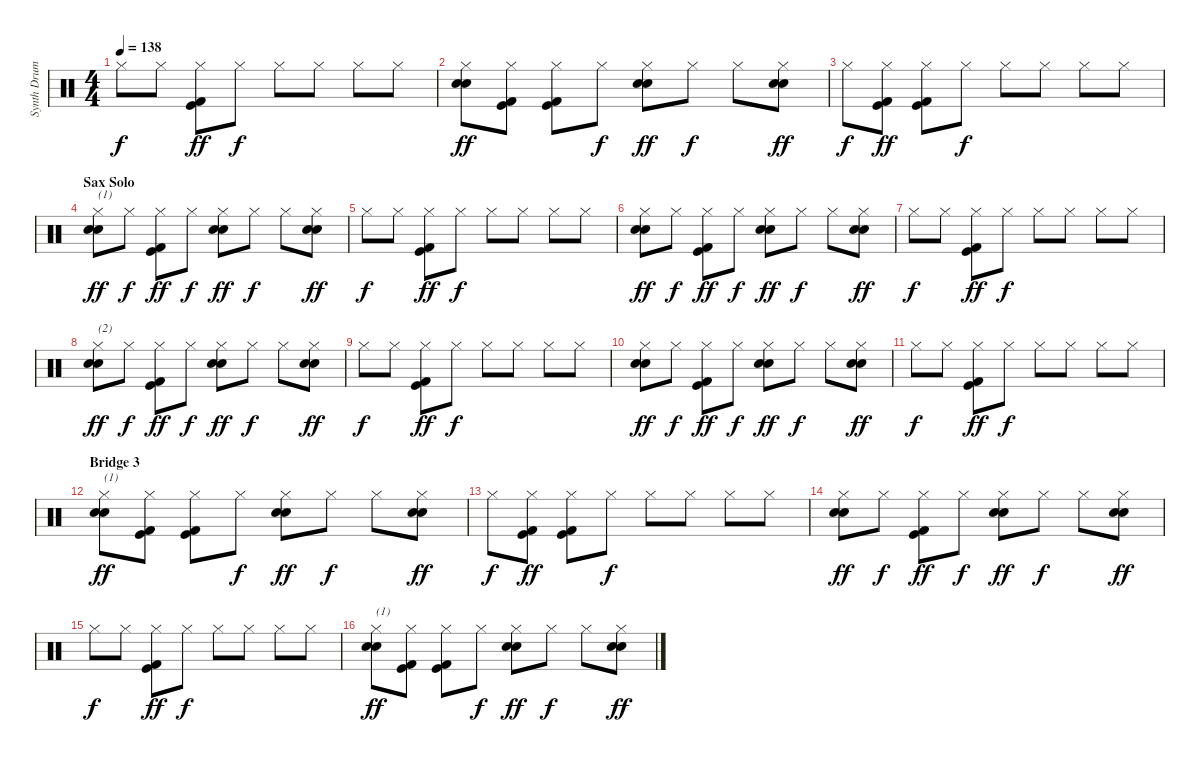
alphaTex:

\track ("Synth Drums" "Synth Drum") {instrument percussion}
\staff {score}
\articulation defaults
\ts (4 4)
\tempo 138
\clef neutral
\ks c "Hi-Hat (closed)".8{dy f} "Hi-Hat (closed)".8
("Hi-Hat (closed)" "Kick (hit)" "Kick (hit) 2").8{dy ff} "Hi-Hat (closed)".8{dy f} "Hi-Hat (closed)".8 "Hi-Hat (closed)".8 "Hi-Hat (closed)".8 "Hi-Hat (closed)".8 |
("Hi-Hat (closed)" "Electric Snare (hit)" "Snare (hit) 2").8{dy ff} ("Hi-Hat (closed)" "Kick (hit)" "Kick (hit) 2").8 ("Hi-Hat (closed)" "Kick (hit)" "Kick (hit) 2").8 "Hi-Hat (closed)".8{dy f} ("Hi-Hat (closed)" "Electric Snare (hit)" "Snare (hit) 2").8{dy ff} "Hi-Hat (closed)".8{dy f} "Hi-Hat (closed)".8 ("Hi-Hat (closed)" "Electric Snare (hit)" "Snare (hit) 2").8{dy ff} |
"Hi-Hat (closed)".8{dy f} ("Hi-Hat (closed)" "Kick (hit)" "Kick (hit) 2").8{dy ff} ("Hi-Hat (closed)" "Kick (hit)" "Kick (hit) 2").8 "Hi-Hat (closed)".8{dy f} "Hi-Hat (closed)".8 "Hi-Hat (closed)".8 "Hi-Hat (closed)".8 "Hi-Hat (closed)".8 |
\section ("" "Sax Solo")
("Hi-Hat (closed)" "Electric Snare (hit)" "Snare (hit) 2").8{txt "(1)" dy ff} "Hi-Hat (closed)".8{dy f} ("Hi-Hat (closed)" "Kick (hit)" "Kick (hit) 2").8{dy ff} "Hi-Hat (closed)".8{dy f} ("Hi-Hat (closed)" "Electric Snare (hit)" "Snare (hit) 2").8{dy ff} "Hi-Hat (closed)".8{dy f} "Hi-Hat (closed)".8 ("Hi-Hat (closed)" "Electric Snare (hit)" "Snare (hit) 2").8{dy ff} |
"Hi-Hat (closed)".8{dy f} "Hi-Hat (closed)".8 ("Hi-Hat (closed)" "Kick (hit)" "Kick (hit) 2").8{dy ff} "Hi-Hat (closed)".8{dy f} "Hi-Hat (closed)".8 "Hi-Hat (closed)".8 "Hi-Hat (closed)".8 "Hi-Hat (closed)".8 |
("Hi-Hat (closed)" "Electric Snare (hit)" "Snare (hit) 2").8{dy ff} "Hi-Hat (closed)".8{dy f} ("Hi-Hat (closed)" "Kick (hit)" "Kick (hit) 2").8{dy ff} "Hi-Hat (closed)".8{dy f} ("Hi-Hat (closed)" "Electric Snare (hit)" "Snare (hit) 2").8{dy ff} "Hi-Hat (closed)".8{dy f} "Hi-Hat (closed)".8 ("Hi-Hat (closed)" "Electric Snare (hit)" "Snare (hit) 2").8{dy ff} |
"Hi-Hat (closed)".8{dy f} "Hi-Hat (closed)".8 ("Hi-Hat (closed)" "Kick (hit)" "Kick (hit) 2").8{dy ff} "Hi-Hat (closed)".8{dy f} "Hi-Hat (closed)".8 "Hi-Hat (closed)".8 "Hi-Hat (closed)".8 "Hi-Hat (closed)".8 |
("Hi-Hat (closed)" "Electric Snare (hit)" "Snare (hit) 2").8{txt "(2)" dy ff} "Hi-Hat (closed)".8{dy f} ("Hi-Hat (closed)" "Kick (hit)" "Kick (hit) 2").8{dy ff} "Hi-Hat (closed)".8{dy f} ("Hi-Hat (closed)" "Electric Snare (hit)" "Snare (hit) 2").8{dy ff} "Hi-Hat (closed)".8{dy f} "Hi-Hat (closed)".8 ("Hi-Hat (closed)" "Electric Snare (hit)" "Snare (hit) 2").8{dy ff} |
"Hi-Hat (closed)".8{dy f} "Hi-Hat (closed)".8 ("Hi-Hat (closed)" "Kick (hit)" "Kick (hit) 2").8{dy ff} "Hi-Hat (closed)".8{dy f} "Hi-Hat (closed)".8 "Hi-Hat (closed)".8 "Hi-Hat (closed)".8 "Hi-Hat (closed)".8 |
("Hi-Hat (closed)" "Electric Snare (hit)" "Snare (hit) 2").8{dy ff} "Hi-Hat (closed)".8{dy f} ("Hi-Hat (closed)" "Kick (hit)" "Kick (hit) 2").8{dy ff} "Hi-Hat (closed)".8{dy f} ("Hi-Hat (closed)" "Electric Snare (hit)" "Snare (hit) 2").8{dy ff} "Hi-Hat (closed)".8{dy f} "Hi-Hat (closed)".8 ("Hi-Hat (closed)" "Electric Snare (hit)" "Snare (hit) 2").8{dy ff} |
"Hi-Hat (closed)".8{dy f} "Hi-Hat (closed)".8 ("Hi-Hat (closed)" "Kick (hit)" "Kick (hit) 2").8{dy ff} "Hi-Hat (closed)".8{dy f} "Hi-Hat (closed)".8 "Hi-Hat (closed)".8 "Hi-Hat (closed)".8 "Hi-Hat (closed)".8 |
\section ("" "Bridge 3")
("Hi-Hat (closed)" "Electric Snare (hit)" "Snare (hit) 2").8{txt "(1)" dy ff} ("Hi-Hat (closed)" "Kick (hit)" "Kick (hit) 2").8 ("Hi-Hat (closed)" "Kick (hit)" "Kick (hit) 2").8 "Hi-Hat (closed)".8{dy f} ("Hi-Hat (closed)" "Electric Snare (hit)" "Snare (hit) 2").8{dy ff} "Hi-Hat (closed)".8{dy f} "Hi-Hat (closed)".8 ("Hi-Hat (closed)" "Electric Snare (hit)" "Snare (hit) 2").8{dy ff} |
"Hi-Hat (closed)".8{dy f} ("Hi-Hat (closed)" "Kick (hit)" "Kick (hit) 2").8{dy ff} ("Hi-Hat (closed)" "Kick (hit)" "Kick (hit) 2").8 "Hi-Hat (closed)".8{dy f} "Hi-Hat (closed)".8 "Hi-Hat (closed)".8 "Hi-Hat (closed)".8 "Hi-Hat (closed)".8 |
("Hi-Hat (closed)" "Electric Snare (hit)" "Snare (hit) 2").8{dy ff} "Hi-Hat (closed)".8{dy f} ("Hi-Hat (closed)" "Kick (hit)" "Kick (hit) 2").8{dy ff} "Hi-Hat (closed)".8{dy f} ("Hi-Hat (closed)" "Electric Snare (hit)" "Snare (hit) 2").8{dy ff} "Hi-Hat (closed)".8{dy f} "Hi-Hat (closed)".8 ("Hi-Hat (closed)" "Electric Snare (hit)" "Snare (hit) 2").8{dy ff} |
"Hi-Hat (closed)".8{dy f} "Hi-Hat (closed)".8 ("Hi-Hat (closed)" "Kick (hit)" "Kick (hit) 2").8{dy ff} "Hi-Hat (closed)".8{dy f} "Hi-Hat (closed)".8 "Hi-Hat (closed)".8 "Hi-Hat (closed)".8 "Hi-Hat (closed)".8 |
("Hi-Hat (closed)" "Electric Snare (hit)" "Snare (hit) 2").8{txt "(1)" dy ff} ("Hi-Hat (closed)" "Kick (hit)" "Kick (hit) 2").8 ("Hi-Hat (closed)" "Kick (hit)" "Kick (hit) 2").8 "Hi-Hat (closed)".8{dy f} ("Hi-Hat (closed)" "Electric Snare (hit)" "Snare (hit) 2").8{dy ff} "Hi-Hat (closed)".8{dy f} "Hi-Hat (closed)".8 ("Hi-Hat (closed)" "Electric Snare (hit)" "Snare (hit) 2").8{dy ff}
